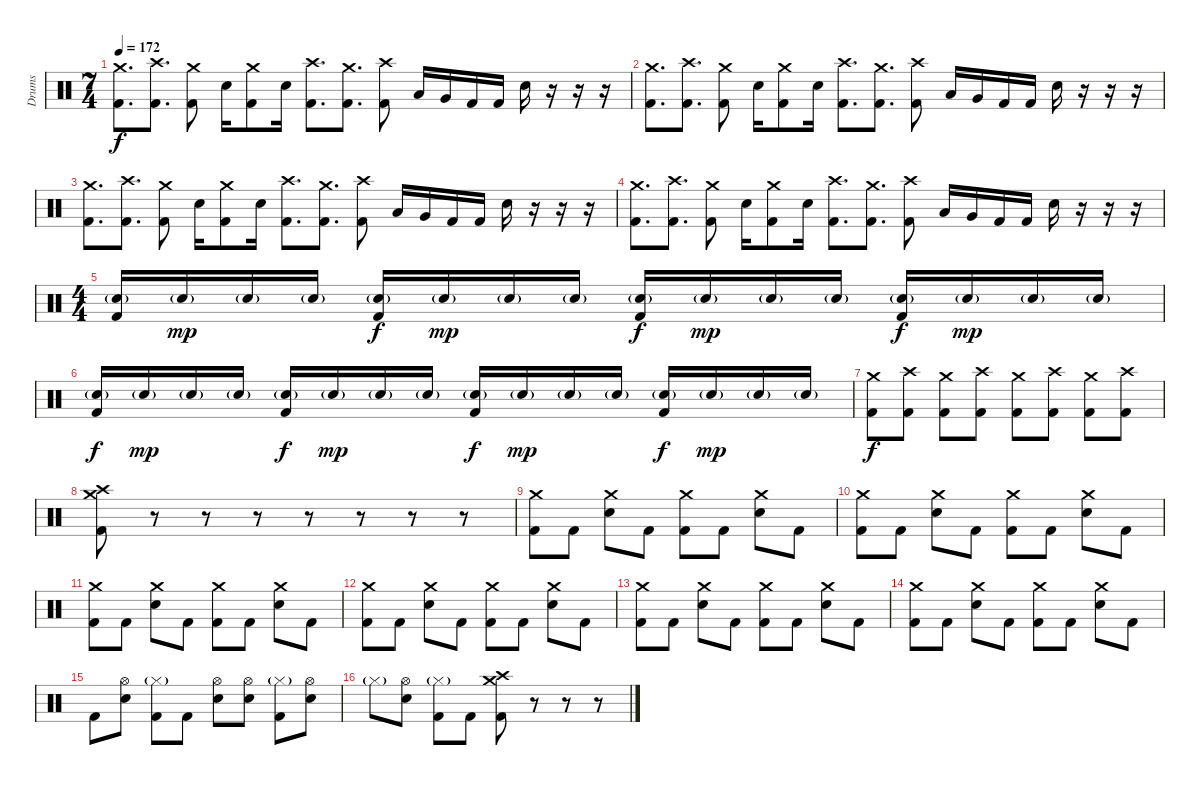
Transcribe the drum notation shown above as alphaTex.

\track ("Drums" "Drums") {instrument percussion}
\staff {score}
\articulation defaults
\ts (7 4)
\tempo 172
\clef neutral
\ks c
("Crash medium (hit)" "Kick (hit) 2").8{d dy f} ("Crash high (hit)" "Kick (hit) 2").8{d} ("Crash medium (hit)" "Kick (hit) 2").8 "Electric Snare (hit)".16 ("Crash medium (hit)" "Kick (hit) 2").8 "Electric Snare (hit)".16 ("Crash high (hit)" "Kick (hit) 2").8{d} ("Crash medium (hit)" "Kick (hit) 2").8{d} ("Crash high (hit)" "Kick (hit) 2").8 "Low Tom (hit)".16 "Very Low Tom (hit)".16 "Kick (hit) 2".16 "Kick (hit) 2".16 "Electric Snare (hit)".16 r.16 r.16 r.16 |
("Crash medium (hit)" "Kick (hit) 2").8{d} ("Crash high (hit)" "Kick (hit) 2").8{d} ("Crash medium (hit)" "Kick (hit) 2").8 "Electric Snare (hit)".16 ("Crash medium (hit)" "Kick (hit) 2").8 "Electric Snare (hit)".16 ("Crash high (hit)" "Kick (hit) 2").8{d} ("Crash medium (hit)" "Kick (hit) 2").8{d} ("Crash high (hit)" "Kick (hit) 2").8 "Low Tom (hit)".16 "Very Low Tom (hit)".16 "Kick (hit) 2".16 "Kick (hit) 2".16 "Electric Snare (hit)".16 r.16 r.16 r.16 |
("Crash medium (hit)" "Kick (hit) 2").8{d} ("Crash high (hit)" "Kick (hit) 2").8{d} ("Crash medium (hit)" "Kick (hit) 2").8 "Electric Snare (hit)".16 ("Crash medium (hit)" "Kick (hit) 2").8 "Electric Snare (hit)".16 ("Crash high (hit)" "Kick (hit) 2").8{d} ("Crash medium (hit)" "Kick (hit) 2").8{d} ("Crash high (hit)" "Kick (hit) 2").8 "Low Tom (hit)".16 "Very Low Tom (hit)".16 "Kick (hit) 2".16 "Kick (hit) 2".16 "Electric Snare (hit)".16 r.16 r.16 r.16 |
("Crash medium (hit)" "Kick (hit) 2").8{d} ("Crash high (hit)" "Kick (hit) 2").8{d} ("Crash medium (hit)" "Kick (hit) 2").8 "Electric Snare (hit)".16 ("Crash medium (hit)" "Kick (hit) 2").8 "Electric Snare (hit)".16 ("Crash high (hit)" "Kick (hit) 2").8{d} ("Crash medium (hit)" "Kick (hit) 2").8{d} ("Crash high (hit)" "Kick (hit) 2").8 "Low Tom (hit)".16 "Very Low Tom (hit)".16 "Kick (hit) 2".16 "Kick (hit) 2".16 "Electric Snare (hit)".16 r.16 r.16 r.16 |
\ts (4 4)
("Snare (hit) 2"{g} "Kick (hit) 2").16 "Snare (hit) 2"{g}.16{dy mp} "Snare (hit) 2"{g}.16 "Snare (hit) 2"{g}.16 ("Snare (hit) 2"{g} "Kick (hit) 2").16{dy f} "Snare (hit) 2"{g}.16{dy mp} "Snare (hit) 2"{g}.16 "Snare (hit) 2"{g}.16 ("Snare (hit) 2"{g} "Kick (hit) 2").16{dy f} "Snare (hit) 2"{g}.16{dy mp} "Snare (hit) 2"{g}.16 "Snare (hit) 2"{g}.16 ("Snare (hit) 2"{g} "Kick (hit) 2").16{dy f} "Snare (hit) 2"{g}.16{dy mp} "Snare (hit) 2"{g}.16 "Snare (hit) 2"{g}.16 |
("Snare (hit) 2"{g} "Kick (hit) 2").16{dy f} "Snare (hit) 2"{g}.16{dy mp} "Snare (hit) 2"{g}.16 "Snare (hit) 2"{g}.16 ("Snare (hit) 2"{g} "Kick (hit) 2").16{dy f} "Snare (hit) 2"{g}.16{dy mp} "Snare (hit) 2"{g}.16 "Snare (hit) 2"{g}.16 ("Snare (hit) 2"{g} "Kick (hit) 2").16{dy f} "Snare (hit) 2"{g}.16{dy mp} "Snare (hit) 2"{g}.16 "Snare (hit) 2"{g}.16 ("Snare (hit) 2"{g} "Kick (hit) 2").16{dy f} "Snare (hit) 2"{g}.16{dy mp} "Snare (hit) 2"{g}.16 "Snare (hit) 2"{g}.16 |
("Crash medium (hit)" "Kick (hit) 2").8{dy f} ("Crash high (hit)" "Kick (hit) 2").8 ("Crash medium (hit)" "Kick (hit) 2").8 ("Crash high (hit)" "Kick (hit) 2").8 ("Crash medium (hit)" "Kick (hit) 2").8 ("Crash high (hit)" "Kick (hit) 2").8 ("Crash medium (hit)" "Kick (hit) 2").8 ("Crash high (hit)" "Kick (hit) 2").8 |
("Crash medium (hit)" "Crash high (hit)" "Kick (hit) 2").8 r.8 r.8 r.8 r.8 r.8 r.8 r.8 |
("Crash medium (hit)" "Kick (hit) 2").8 "Kick (hit) 2".8 ("Crash medium (hit)" "Electric Snare (hit)").8 "Kick (hit) 2".8 ("Crash medium (hit)" "Kick (hit) 2").8 "Kick (hit) 2".8 ("Crash medium (hit)" "Electric Snare (hit)").8 "Kick (hit) 2".8 |
("Crash medium (hit)" "Kick (hit) 2").8 "Kick (hit) 2".8 ("Crash medium (hit)" "Electric Snare (hit)").8 "Kick (hit) 2".8 ("Crash medium (hit)" "Kick (hit) 2").8 "Kick (hit) 2".8 ("Crash medium (hit)" "Electric Snare (hit)").8 "Kick (hit) 2".8 |
("Crash medium (hit)" "Kick (hit) 2").8 "Kick (hit) 2".8 ("Crash medium (hit)" "Electric Snare (hit)").8 "Kick (hit) 2".8 ("Crash medium (hit)" "Kick (hit) 2").8 "Kick (hit) 2".8 ("Crash medium (hit)" "Electric Snare (hit)").8 "Kick (hit) 2".8 |
("Crash medium (hit)" "Kick (hit) 2").8 "Kick (hit) 2".8 ("Crash medium (hit)" "Electric Snare (hit)").8 "Kick (hit) 2".8 ("Crash medium (hit)" "Kick (hit) 2").8 "Kick (hit) 2".8 ("Crash medium (hit)" "Electric Snare (hit)").8 "Kick (hit) 2".8 |
("Crash medium (hit)" "Kick (hit) 2").8 "Kick (hit) 2".8 ("Crash medium (hit)" "Electric Snare (hit)").8 "Kick (hit) 2".8 ("Crash medium (hit)" "Kick (hit) 2").8 "Kick (hit) 2".8 ("Crash medium (hit)" "Electric Snare (hit)").8 "Kick (hit) 2".8 |
("Crash medium (hit)" "Kick (hit) 2").8 "Kick (hit) 2".8 ("Crash medium (hit)" "Electric Snare (hit)").8 "Kick (hit) 2".8 ("Crash medium (hit)" "Kick (hit) 2").8 "Kick (hit) 2".8 ("Crash medium (hit)" "Electric Snare (hit)").8 "Kick (hit) 2".8 |
"Kick (hit) 2".8 ("Hi-Hat (open)" "Electric Snare (hit)").8 ("Hi-Hat (closed)"{g} "Kick (hit) 2").8 "Kick (hit) 2".8 ("Hi-Hat (open)" "Electric Snare (hit)").8 ("Hi-Hat (open)" "Electric Snare (hit)").8 ("Hi-Hat (closed)"{g} "Kick (hit) 2").8 ("Hi-Hat (open)" "Electric Snare (hit)").8 |
"Hi-Hat (closed)"{g}.8 ("Hi-Hat (open)" "Electric Snare (hit)").8 ("Hi-Hat (closed)"{g} "Kick (hit) 2").8 "Kick (hit) 2".8 ("Crash medium (hit)" "Crash high (hit)" "Kick (hit) 2").8 r.8 r.8 r.8
